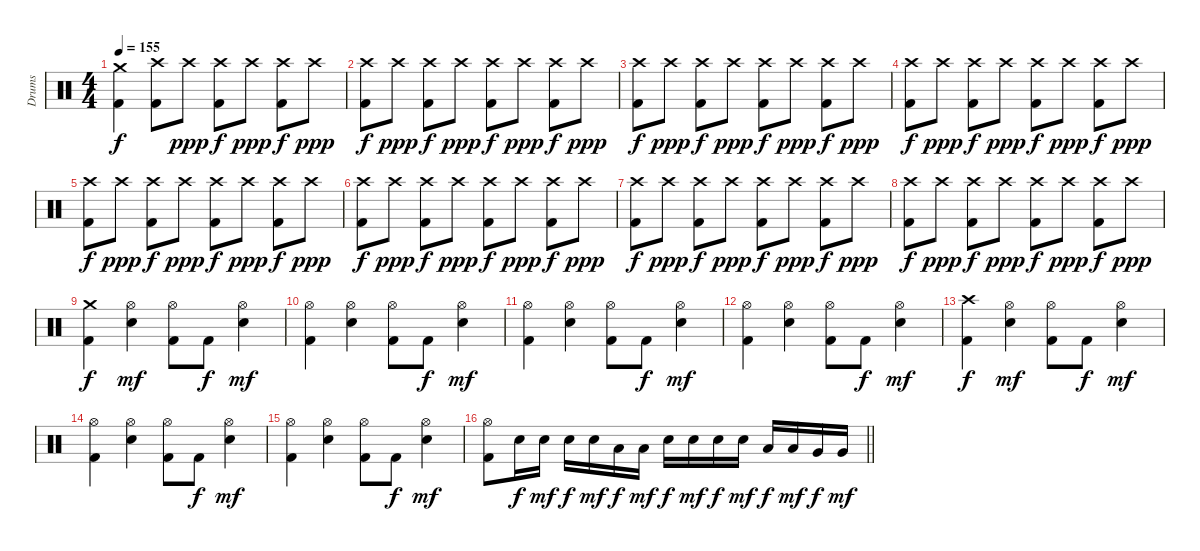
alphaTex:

\track ("Drums" "Drums") {instrument percussion}
\staff {score}
\articulation defaults
\ts (4 4)
\tempo 155
\clef neutral
\ks c
("Kick (hit) 2" "Crash medium (hit)").4{dy f} ("Kick (hit) 2" "Crash high (hit)").8 "Crash high (hit)".8{dy ppp} ("Kick (hit) 2" "Crash high (hit)").8{dy f} "Crash high (hit)".8{dy ppp} ("Kick (hit) 2" "Crash high (hit)").8{dy f} "Crash high (hit)".8{dy ppp} |
("Kick (hit) 2" "Crash high (hit)").8{dy f} "Crash high (hit)".8{dy ppp} ("Kick (hit) 2" "Crash high (hit)").8{dy f} "Crash high (hit)".8{dy ppp} ("Kick (hit) 2" "Crash high (hit)").8{dy f} "Crash high (hit)".8{dy ppp} ("Kick (hit) 2" "Crash high (hit)").8{dy f} "Crash high (hit)".8{dy ppp} |
("Kick (hit) 2" "Crash high (hit)").8{dy f} "Crash high (hit)".8{dy ppp} ("Kick (hit) 2" "Crash high (hit)").8{dy f} "Crash high (hit)".8{dy ppp} ("Kick (hit) 2" "Crash high (hit)").8{dy f} "Crash high (hit)".8{dy ppp} ("Kick (hit) 2" "Crash high (hit)").8{dy f} "Crash high (hit)".8{dy ppp} |
("Kick (hit) 2" "Crash high (hit)").8{dy f} "Crash high (hit)".8{dy ppp} ("Kick (hit) 2" "Crash high (hit)").8{dy f} "Crash high (hit)".8{dy ppp} ("Kick (hit) 2" "Crash high (hit)").8{dy f} "Crash high (hit)".8{dy ppp} ("Kick (hit) 2" "Crash high (hit)").8{dy f} "Crash high (hit)".8{dy ppp} |
("Kick (hit) 2" "Crash high (hit)").8{dy f} "Crash high (hit)".8{dy ppp} ("Kick (hit) 2" "Crash high (hit)").8{dy f} "Crash high (hit)".8{dy ppp} ("Kick (hit) 2" "Crash high (hit)").8{dy f} "Crash high (hit)".8{dy ppp} ("Kick (hit) 2" "Crash high (hit)").8{dy f} "Crash high (hit)".8{dy ppp} |
("Kick (hit) 2" "Crash high (hit)").8{dy f} "Crash high (hit)".8{dy ppp} ("Kick (hit) 2" "Crash high (hit)").8{dy f} "Crash high (hit)".8{dy ppp} ("Kick (hit) 2" "Crash high (hit)").8{dy f} "Crash high (hit)".8{dy ppp} ("Kick (hit) 2" "Crash high (hit)").8{dy f} "Crash high (hit)".8{dy ppp} |
("Kick (hit) 2" "Crash high (hit)").8{dy f} "Crash high (hit)".8{dy ppp} ("Kick (hit) 2" "Crash high (hit)").8{dy f} "Crash high (hit)".8{dy ppp} ("Kick (hit) 2" "Crash high (hit)").8{dy f} "Crash high (hit)".8{dy ppp} ("Kick (hit) 2" "Crash high (hit)").8{dy f} "Crash high (hit)".8{dy ppp} |
("Kick (hit) 2" "Crash high (hit)").8{dy f} "Crash high (hit)".8{dy ppp} ("Kick (hit) 2" "Crash high (hit)").8{dy f} "Crash high (hit)".8{dy ppp} ("Kick (hit) 2" "Crash high (hit)").8{dy f} "Crash high (hit)".8{dy ppp} ("Kick (hit) 2" "Crash high (hit)").8{dy f} "Crash high (hit)".8{dy ppp} |
("Kick (hit) 2" "Crash medium (hit)").4{dy f} ("Hi-Hat (open)" "Electric Snare (hit)").4{dy mf} ("Kick (hit) 2" "Hi-Hat (open)").8 "Kick (hit) 2".8{dy f} ("Hi-Hat (open)" "Electric Snare (hit)").4{dy mf} |
("Kick (hit) 2" "Hi-Hat (open)").4 ("Hi-Hat (open)" "Electric Snare (hit)").4 ("Kick (hit) 2" "Hi-Hat (open)").8 "Kick (hit) 2".8{dy f} ("Hi-Hat (open)" "Electric Snare (hit)").4{dy mf} |
("Kick (hit) 2" "Hi-Hat (open)").4 ("Hi-Hat (open)" "Electric Snare (hit)").4 ("Kick (hit) 2" "Hi-Hat (open)").8 "Kick (hit) 2".8{dy f} ("Hi-Hat (open)" "Electric Snare (hit)").4{dy mf} |
("Kick (hit) 2" "Hi-Hat (open)").4 ("Hi-Hat (open)" "Electric Snare (hit)").4 ("Kick (hit) 2" "Hi-Hat (open)").8 "Kick (hit) 2".8{dy f} ("Hi-Hat (open)" "Electric Snare (hit)").4{dy mf} |
("Kick (hit) 2" "Crash high (hit)").4{dy f} ("Hi-Hat (open)" "Electric Snare (hit)").4{dy mf} ("Kick (hit) 2" "Hi-Hat (open)").8 "Kick (hit) 2".8{dy f} ("Hi-Hat (open)" "Electric Snare (hit)").4{dy mf} |
("Kick (hit) 2" "Hi-Hat (open)").4 ("Hi-Hat (open)" "Electric Snare (hit)").4 ("Kick (hit) 2" "Hi-Hat (open)").8 "Kick (hit) 2".8{dy f} ("Hi-Hat (open)" "Electric Snare (hit)").4{dy mf} |
("Kick (hit) 2" "Hi-Hat (open)").4 ("Hi-Hat (open)" "Electric Snare (hit)").4 ("Kick (hit) 2" "Hi-Hat (open)").8 "Kick (hit) 2".8{dy f} ("Hi-Hat (open)" "Electric Snare (hit)").4{dy mf} |
\barLineRight lightlight
("Kick (hit) 2" "Hi-Hat (open)").8 "Electric Snare (hit)".16{dy f} "Electric Snare (hit)".16{dy mf} "Electric Snare (hit)".16{dy f} "Electric Snare (hit)".16{dy mf} "Low Tom (hit)".16{dy f} "Low Tom (hit)".16{dy mf} "Electric Snare (hit)".16{dy f} "Electric Snare (hit)".16{dy mf} "Electric Snare (hit)".16{dy f} "Electric Snare (hit)".16{dy mf} "Low Tom (hit)".16{dy f} "Low Tom (hit)".16{dy mf} "Very Low Tom (hit)".16{dy f} "Very Low Tom (hit)".16{dy mf}
